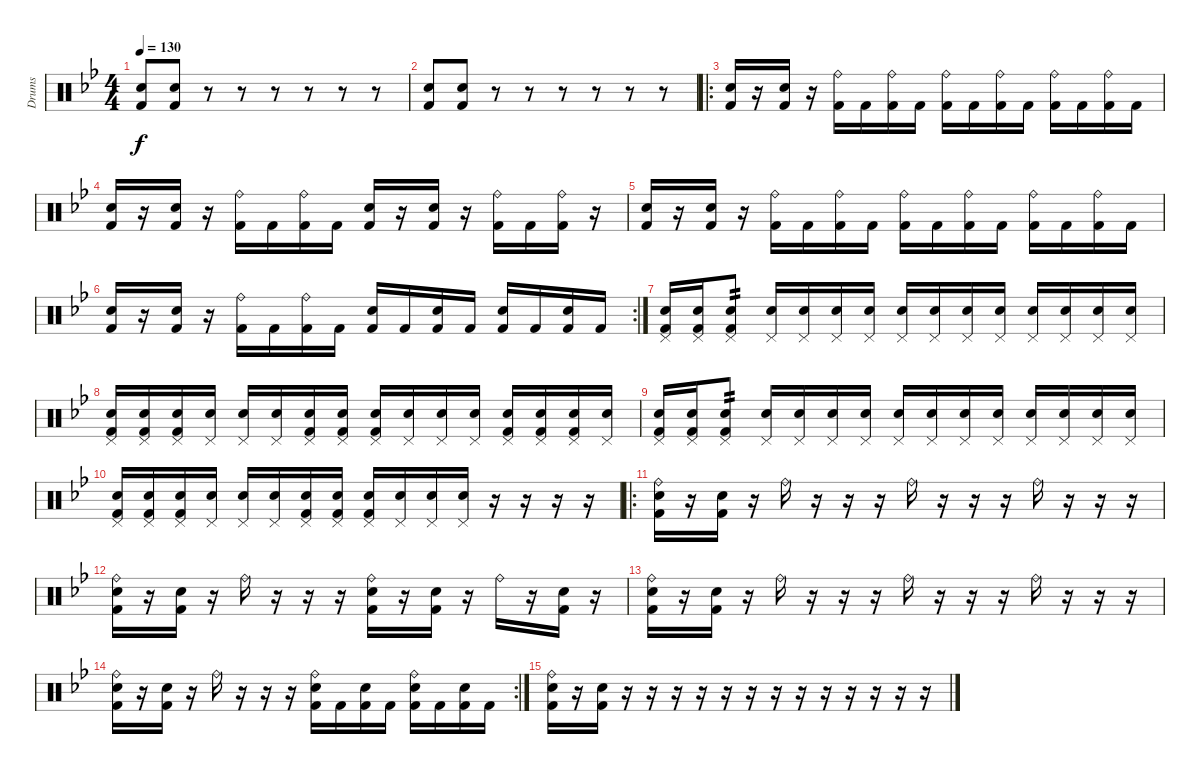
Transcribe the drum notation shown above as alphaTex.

\track ("Drums" "Drums") {instrument percussion}
\staff {score}
\articulation defaults
\ts (4 4)
\tempo 130
\clef neutral
\ks bb
("Electric Snare (hit)" "Kick (hit) 2").8{dy f} ("Electric Snare (hit)" "Kick (hit) 2").8 r.8 r.8 r.8 r.8 r.8 r.8 |
("Electric Snare (hit)" "Kick (hit) 2").8 ("Electric Snare (hit)" "Kick (hit) 2").8 r.8 r.8 r.8 r.8 r.8 r.8 |
\ro
("Electric Snare (hit)" "Kick (hit) 2").16 r.16 ("Electric Snare (hit)" "Kick (hit) 2").16 r.16 ("Ride (bell)" "Kick (hit) 2").16 "Kick (hit) 2".16 ("Ride (bell)" "Kick (hit) 2").16 "Kick (hit) 2".16 ("Ride (bell)" "Kick (hit) 2").16 "Kick (hit) 2".16 ("Ride (bell)" "Kick (hit) 2").16 "Kick (hit) 2".16 ("Ride (bell)" "Kick (hit) 2").16 "Kick (hit) 2".16 ("Ride (bell)" "Kick (hit) 2").16 "Kick (hit) 2".16 |
("Electric Snare (hit)" "Kick (hit) 2").16 r.16 ("Electric Snare (hit)" "Kick (hit) 2").16 r.16 ("Ride (bell)" "Kick (hit) 2").16 "Kick (hit) 2".16 ("Ride (bell)" "Kick (hit) 2").16 "Kick (hit) 2".16 ("Electric Snare (hit)" "Kick (hit) 2").16 r.16 ("Electric Snare (hit)" "Kick (hit) 2").16 r.16 ("Ride (bell)" "Kick (hit) 2").16 "Kick (hit) 2".16 ("Ride (bell)" "Kick (hit) 2").16 r.16 |
("Electric Snare (hit)" "Kick (hit) 2").16 r.16 ("Electric Snare (hit)" "Kick (hit) 2").16 r.16 ("Ride (bell)" "Kick (hit) 2").16 "Kick (hit) 2".16 ("Ride (bell)" "Kick (hit) 2").16 "Kick (hit) 2".16 ("Ride (bell)" "Kick (hit) 2").16 "Kick (hit) 2".16 ("Ride (bell)" "Kick (hit) 2").16 "Kick (hit) 2".16 ("Ride (bell)" "Kick (hit) 2").16 "Kick (hit) 2".16 ("Ride (bell)" "Kick (hit) 2").16 "Kick (hit) 2".16 |
\rc 2
("Electric Snare (hit)" "Kick (hit) 2").16 r.16 ("Electric Snare (hit)" "Kick (hit) 2").16 r.16 ("Ride (bell)" "Kick (hit) 2").16 "Kick (hit) 2".16 ("Ride (bell)" "Kick (hit) 2").16 "Kick (hit) 2".16 ("Electric Snare (hit)" "Kick (hit) 2").16 "Kick (hit) 2".16 ("Electric Snare (hit)" "Kick (hit) 2").16 "Kick (hit) 2".16 ("Electric Snare (hit)" "Kick (hit) 2").16 "Kick (hit) 2".16 ("Electric Snare (hit)" "Kick (hit) 2").16 "Kick (hit) 2".16 |
("Pedal Hi-Hat (hit)" "Electric Snare (hit)" "Kick (hit) 2").16 ("Pedal Hi-Hat (hit)" "Electric Snare (hit)" "Kick (hit) 2").16 ("Pedal Hi-Hat (hit)" "Electric Snare (hit)" "Kick (hit) 2").8{tp 2} ("Pedal Hi-Hat (hit)" "Electric Snare (hit)").16 ("Pedal Hi-Hat (hit)" "Electric Snare (hit)").16 ("Pedal Hi-Hat (hit)" "Electric Snare (hit)").16 ("Pedal Hi-Hat (hit)" "Electric Snare (hit)").16 ("Pedal Hi-Hat (hit)" "Electric Snare (hit)").16 ("Pedal Hi-Hat (hit)" "Electric Snare (hit)").16 ("Pedal Hi-Hat (hit)" "Electric Snare (hit)").16 ("Pedal Hi-Hat (hit)" "Electric Snare (hit)").16 ("Pedal Hi-Hat (hit)" "Electric Snare (hit)").16 ("Pedal Hi-Hat (hit)" "Electric Snare (hit)").16 ("Pedal Hi-Hat (hit)" "Electric Snare (hit)").16 ("Pedal Hi-Hat (hit)" "Electric Snare (hit)").16 |
("Pedal Hi-Hat (hit)" "Electric Snare (hit)" "Kick (hit) 2").16 ("Pedal Hi-Hat (hit)" "Electric Snare (hit)" "Kick (hit) 2").16 ("Pedal Hi-Hat (hit)" "Electric Snare (hit)" "Kick (hit) 2").16 ("Pedal Hi-Hat (hit)" "Electric Snare (hit)").16 ("Pedal Hi-Hat (hit)" "Electric Snare (hit)").16 ("Pedal Hi-Hat (hit)" "Electric Snare (hit)").16 ("Pedal Hi-Hat (hit)" "Electric Snare (hit)" "Kick (hit) 2").16 ("Pedal Hi-Hat (hit)" "Electric Snare (hit)" "Kick (hit) 2").16 ("Pedal Hi-Hat (hit)" "Electric Snare (hit)" "Kick (hit) 2").16 ("Pedal Hi-Hat (hit)" "Electric Snare (hit)").16 ("Pedal Hi-Hat (hit)" "Electric Snare (hit)").16 ("Pedal Hi-Hat (hit)" "Electric Snare (hit)").16 ("Pedal Hi-Hat (hit)" "Electric Snare (hit)" "Kick (hit) 2").16 ("Pedal Hi-Hat (hit)" "Electric Snare (hit)" "Kick (hit) 2").16 ("Pedal Hi-Hat (hit)" "Electric Snare (hit)" "Kick (hit) 2").16 ("Pedal Hi-Hat (hit)" "Electric Snare (hit)").16 |
("Pedal Hi-Hat (hit)" "Electric Snare (hit)" "Kick (hit) 2").16 ("Pedal Hi-Hat (hit)" "Electric Snare (hit)" "Kick (hit) 2").16 ("Pedal Hi-Hat (hit)" "Electric Snare (hit)" "Kick (hit) 2").8{tp 2} ("Pedal Hi-Hat (hit)" "Electric Snare (hit)").16 ("Pedal Hi-Hat (hit)" "Electric Snare (hit)").16 ("Pedal Hi-Hat (hit)" "Electric Snare (hit)").16 ("Pedal Hi-Hat (hit)" "Electric Snare (hit)").16 ("Pedal Hi-Hat (hit)" "Electric Snare (hit)").16 ("Pedal Hi-Hat (hit)" "Electric Snare (hit)").16 ("Pedal Hi-Hat (hit)" "Electric Snare (hit)").16 ("Pedal Hi-Hat (hit)" "Electric Snare (hit)").16 ("Pedal Hi-Hat (hit)" "Electric Snare (hit)").16 ("Pedal Hi-Hat (hit)" "Electric Snare (hit)").16 ("Pedal Hi-Hat (hit)" "Electric Snare (hit)").16 ("Pedal Hi-Hat (hit)" "Electric Snare (hit)").16 |
("Pedal Hi-Hat (hit)" "Electric Snare (hit)" "Kick (hit) 2").16 ("Pedal Hi-Hat (hit)" "Electric Snare (hit)" "Kick (hit) 2").16 ("Pedal Hi-Hat (hit)" "Electric Snare (hit)" "Kick (hit) 2").16 ("Pedal Hi-Hat (hit)" "Electric Snare (hit)").16 ("Pedal Hi-Hat (hit)" "Electric Snare (hit)").16 ("Pedal Hi-Hat (hit)" "Electric Snare (hit)").16 ("Pedal Hi-Hat (hit)" "Electric Snare (hit)" "Kick (hit) 2").16 ("Pedal Hi-Hat (hit)" "Electric Snare (hit)" "Kick (hit) 2").16 ("Pedal Hi-Hat (hit)" "Electric Snare (hit)" "Kick (hit) 2").16 ("Pedal Hi-Hat (hit)" "Electric Snare (hit)").16 ("Pedal Hi-Hat (hit)" "Electric Snare (hit)").16 ("Pedal Hi-Hat (hit)" "Electric Snare (hit)").16 r.16 r.16 r.16 r.16 |
\ro
("Ride (bell)" "Electric Snare (hit)" "Kick (hit) 2").16 r.16 ("Electric Snare (hit)" "Kick (hit) 2").16 r.16 "Ride (bell)".16 r.16 r.16 r.16 "Ride (bell)".16 r.16 r.16 r.16 "Ride (bell)".16 r.16 r.16 r.16 |
("Ride (bell)" "Electric Snare (hit)" "Kick (hit) 2").16 r.16 ("Electric Snare (hit)" "Kick (hit) 2").16 r.16 "Ride (bell)".16 r.16 r.16 r.16 ("Ride (bell)" "Electric Snare (hit)" "Kick (hit) 2").16 r.16 ("Electric Snare (hit)" "Kick (hit) 2").16 r.16 "Ride (bell)".16 r.16 ("Electric Snare (hit)" "Kick (hit) 2").16 r.16 |
("Ride (bell)" "Electric Snare (hit)" "Kick (hit) 2").16 r.16 ("Electric Snare (hit)" "Kick (hit) 2").16 r.16 "Ride (bell)".16 r.16 r.16 r.16 "Ride (bell)".16 r.16 r.16 r.16 "Ride (bell)".16 r.16 r.16 r.16 |
\rc 2
("Ride (bell)" "Electric Snare (hit)" "Kick (hit) 2").16 r.16 ("Electric Snare (hit)" "Kick (hit) 2").16 r.16 "Ride (bell)".16 r.16 r.16 r.16 ("Ride (bell)" "Electric Snare (hit)" "Kick (hit) 2").16 "Kick (hit) 2".16 ("Electric Snare (hit)" "Kick (hit) 2").16 "Kick (hit) 2".16 ("Ride (bell)" "Electric Snare (hit)" "Kick (hit) 2").16 "Kick (hit) 2".16 ("Electric Snare (hit)" "Kick (hit) 2").16 "Kick (hit) 2".16 |
("Ride (bell)" "Electric Snare (hit)" "Kick (hit) 2").16 r.16 ("Electric Snare (hit)" "Kick (hit) 2").16 r.16 r.16 r.16 r.16 r.16 r.16 r.16 r.16 r.16 r.16 r.16 r.16 r.16
